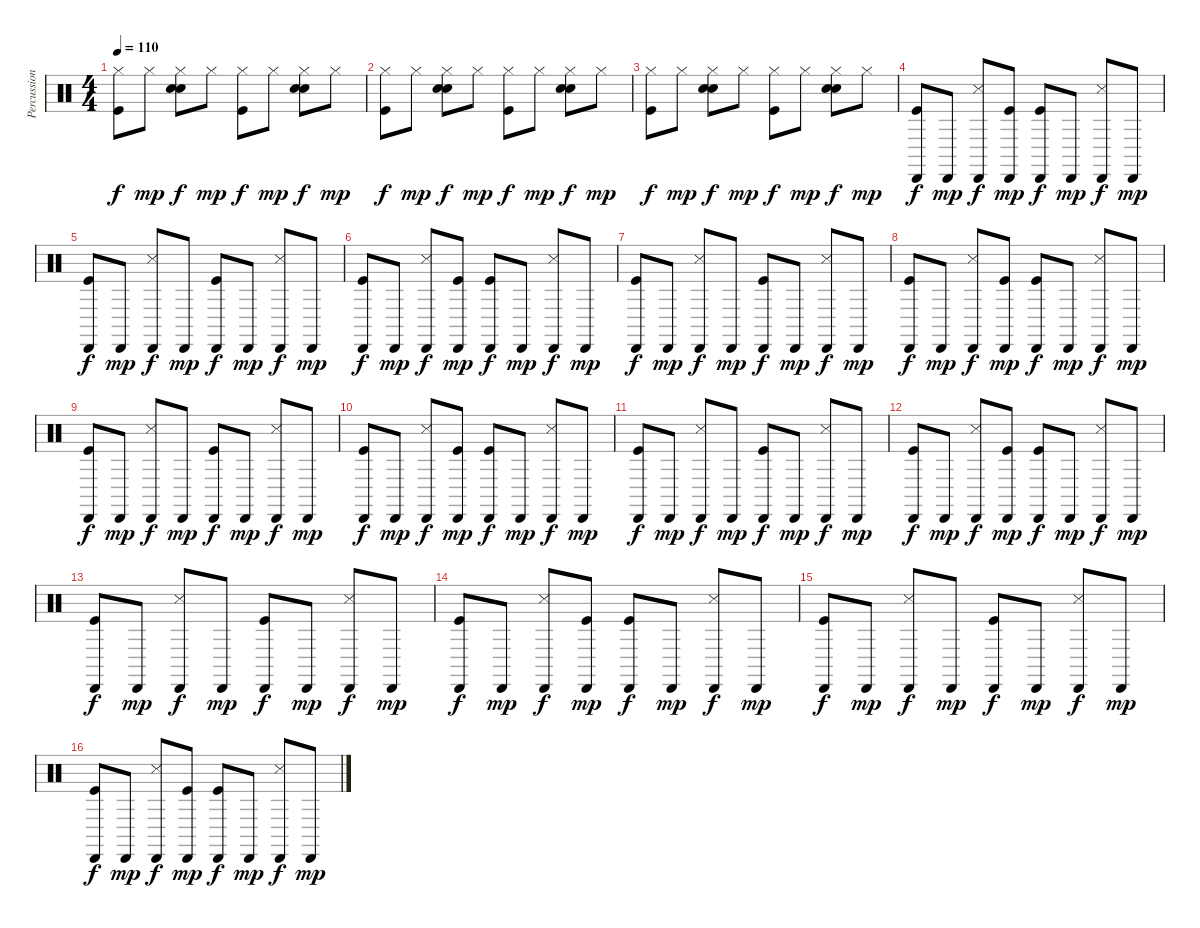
\track ("Percussions" "Percussion") {instrument percussion}
\staff {score}
\articulation defaults
\ts (4 4)
\tempo 110
\clef neutral
\ks c
("Hi-Hat (closed)" "Kick (hit)").8{dy f} "Hi-Hat (closed)".8{dy mp} ("Hi-Hat (closed)" "Snare (hit) 2" "Hand Clap (hit)").8{dy f} "Hi-Hat (closed)".8{dy mp} ("Hi-Hat (closed)" "Kick (hit)").8{dy f} "Hi-Hat (closed)".8{dy mp} ("Hi-Hat (closed)" "Snare (hit) 2" "Hand Clap (hit)").8{dy f} "Hi-Hat (closed)".8{dy mp} |
("Hi-Hat (closed)" "Kick (hit)").8{dy f} "Hi-Hat (closed)".8{dy mp} ("Hi-Hat (closed)" "Snare (hit) 2" "Hand Clap (hit)").8{dy f} "Hi-Hat (closed)".8{dy mp} ("Hi-Hat (closed)" "Kick (hit)").8{dy f} "Hi-Hat (closed)".8{dy mp} ("Hi-Hat (closed)" "Snare (hit) 2" "Hand Clap (hit)").8{dy f} "Hi-Hat (closed)".8{dy mp} |
("Hi-Hat (closed)" "Kick (hit)").8{dy f} "Hi-Hat (closed)".8{dy mp} ("Hi-Hat (closed)" "Snare (hit) 2" "Hand Clap (hit)").8{dy f} "Hi-Hat (closed)".8{dy mp} ("Hi-Hat (closed)" "Kick (hit)").8{dy f} "Hi-Hat (closed)".8{dy mp} ("Hi-Hat (closed)" "Snare (hit) 2" "Hand Clap (hit)").8{dy f} "Hi-Hat (closed)".8{dy mp} |
("Cabasa (hit)" "Kick (hit)").8{dy f} "Cabasa (hit)".8{dy mp} ("Cabasa (hit)" "Snare (side stick) 3").8{dy f} ("Cabasa (hit)" "Kick (hit)").8{dy mp} ("Cabasa (hit)" "Kick (hit)").8{dy f} "Cabasa (hit)".8{dy mp} ("Cabasa (hit)" "Snare (side stick) 3").8{dy f} "Cabasa (hit)".8{dy mp} |
("Cabasa (hit)" "Kick (hit)").8{dy f} "Cabasa (hit)".8{dy mp} ("Cabasa (hit)" "Snare (side stick) 3").8{dy f} "Cabasa (hit)".8{dy mp} ("Cabasa (hit)" "Kick (hit)").8{dy f} "Cabasa (hit)".8{dy mp} ("Cabasa (hit)" "Snare (side stick) 3").8{dy f} "Cabasa (hit)".8{dy mp} |
("Cabasa (hit)" "Kick (hit)").8{dy f} "Cabasa (hit)".8{dy mp} ("Cabasa (hit)" "Snare (side stick) 3").8{dy f} ("Cabasa (hit)" "Kick (hit)").8{dy mp} ("Cabasa (hit)" "Kick (hit)").8{dy f} "Cabasa (hit)".8{dy mp} ("Cabasa (hit)" "Snare (side stick) 3").8{dy f} "Cabasa (hit)".8{dy mp} |
("Cabasa (hit)" "Kick (hit)").8{dy f} "Cabasa (hit)".8{dy mp} ("Cabasa (hit)" "Snare (side stick) 3").8{dy f} "Cabasa (hit)".8{dy mp} ("Cabasa (hit)" "Kick (hit)").8{dy f} "Cabasa (hit)".8{dy mp} ("Cabasa (hit)" "Snare (side stick) 3").8{dy f} "Cabasa (hit)".8{dy mp} |
("Cabasa (hit)" "Kick (hit)").8{dy f} "Cabasa (hit)".8{dy mp} ("Cabasa (hit)" "Snare (side stick) 3").8{dy f} ("Cabasa (hit)" "Kick (hit)").8{dy mp} ("Cabasa (hit)" "Kick (hit)").8{dy f} "Cabasa (hit)".8{dy mp} ("Cabasa (hit)" "Snare (side stick) 3").8{dy f} "Cabasa (hit)".8{dy mp} |
("Cabasa (hit)" "Kick (hit)").8{dy f} "Cabasa (hit)".8{dy mp} ("Cabasa (hit)" "Snare (side stick) 3").8{dy f} "Cabasa (hit)".8{dy mp} ("Cabasa (hit)" "Kick (hit)").8{dy f} "Cabasa (hit)".8{dy mp} ("Cabasa (hit)" "Snare (side stick) 3").8{dy f} "Cabasa (hit)".8{dy mp} |
("Cabasa (hit)" "Kick (hit)").8{dy f} "Cabasa (hit)".8{dy mp} ("Cabasa (hit)" "Snare (side stick) 3").8{dy f} ("Cabasa (hit)" "Kick (hit)").8{dy mp} ("Cabasa (hit)" "Kick (hit)").8{dy f} "Cabasa (hit)".8{dy mp} ("Cabasa (hit)" "Snare (side stick) 3").8{dy f} "Cabasa (hit)".8{dy mp} |
("Cabasa (hit)" "Kick (hit)").8{dy f} "Cabasa (hit)".8{dy mp} ("Cabasa (hit)" "Snare (side stick) 3").8{dy f} "Cabasa (hit)".8{dy mp} ("Cabasa (hit)" "Kick (hit)").8{dy f} "Cabasa (hit)".8{dy mp} ("Cabasa (hit)" "Snare (side stick) 3").8{dy f} "Cabasa (hit)".8{dy mp} |
("Cabasa (hit)" "Kick (hit)").8{dy f} "Cabasa (hit)".8{dy mp} ("Cabasa (hit)" "Snare (side stick) 3").8{dy f} ("Cabasa (hit)" "Kick (hit)").8{dy mp} ("Cabasa (hit)" "Kick (hit)").8{dy f} "Cabasa (hit)".8{dy mp} ("Cabasa (hit)" "Snare (side stick) 3").8{dy f} "Cabasa (hit)".8{dy mp} |
("Cabasa (hit)" "Kick (hit)").8{dy f} "Cabasa (hit)".8{dy mp} ("Cabasa (hit)" "Snare (side stick) 3").8{dy f} "Cabasa (hit)".8{dy mp} ("Cabasa (hit)" "Kick (hit)").8{dy f} "Cabasa (hit)".8{dy mp} ("Cabasa (hit)" "Snare (side stick) 3").8{dy f} "Cabasa (hit)".8{dy mp} |
("Cabasa (hit)" "Kick (hit)").8{dy f} "Cabasa (hit)".8{dy mp} ("Cabasa (hit)" "Snare (side stick) 3").8{dy f} ("Cabasa (hit)" "Kick (hit)").8{dy mp} ("Cabasa (hit)" "Kick (hit)").8{dy f} "Cabasa (hit)".8{dy mp} ("Cabasa (hit)" "Snare (side stick) 3").8{dy f} "Cabasa (hit)".8{dy mp} |
("Cabasa (hit)" "Kick (hit)").8{dy f} "Cabasa (hit)".8{dy mp} ("Cabasa (hit)" "Snare (side stick) 3").8{dy f} "Cabasa (hit)".8{dy mp} ("Cabasa (hit)" "Kick (hit)").8{dy f} "Cabasa (hit)".8{dy mp} ("Cabasa (hit)" "Snare (side stick) 3").8{dy f} "Cabasa (hit)".8{dy mp} |
("Cabasa (hit)" "Kick (hit)").8{dy f} "Cabasa (hit)".8{dy mp} ("Cabasa (hit)" "Snare (side stick) 3").8{dy f} ("Cabasa (hit)" "Kick (hit)").8{dy mp} ("Cabasa (hit)" "Kick (hit)").8{dy f} "Cabasa (hit)".8{dy mp} ("Cabasa (hit)" "Snare (side stick) 3").8{dy f} "Cabasa (hit)".8{dy mp}
